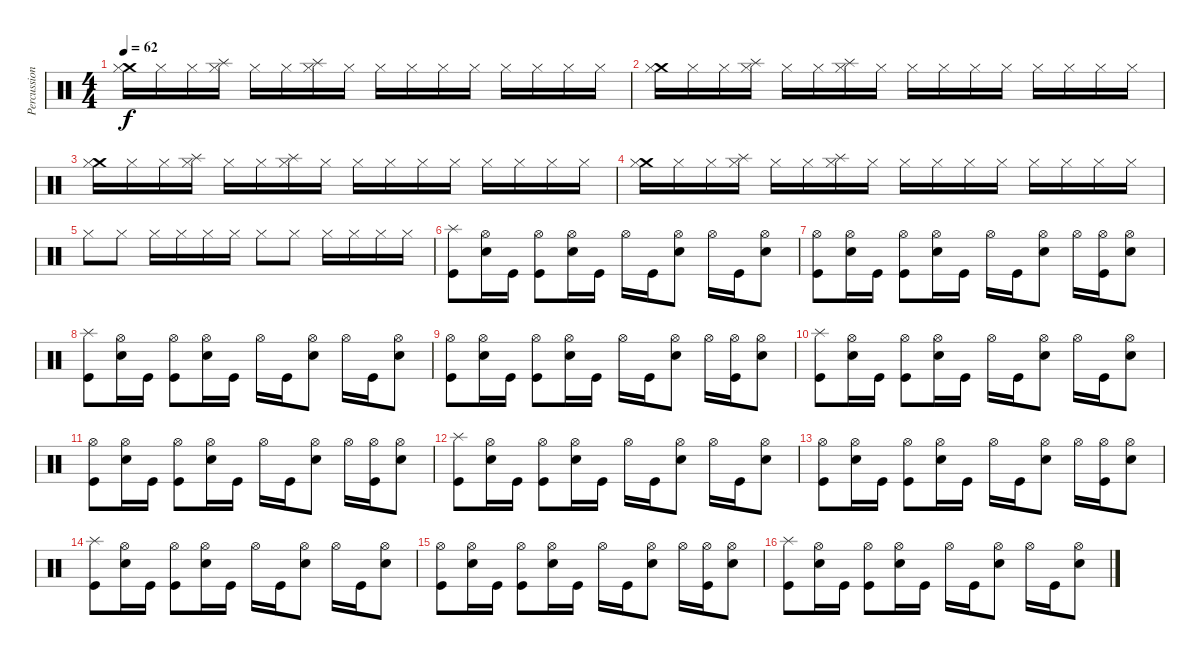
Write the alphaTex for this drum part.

\track ("Percussion" "Percussion") {instrument percussion}
\staff {score}
\articulation defaults
\ts (4 4)
\tempo 62
\clef neutral
\ks c
("Crash medium (hit)" "Hi-Hat (closed)").16{dy f} "Hi-Hat (closed)".16 "Hi-Hat (closed)".16 ("Splash (hit)" "Hi-Hat (closed)").16 "Hi-Hat (closed)".16 "Hi-Hat (closed)".16 ("Splash (hit)" "Hi-Hat (closed)").16 "Hi-Hat (closed)".16 "Hi-Hat (closed)".16 "Hi-Hat (closed)".16 "Hi-Hat (closed)".16 "Hi-Hat (closed)".16 "Hi-Hat (closed)".16 "Hi-Hat (closed)".16 "Hi-Hat (closed)".16 "Hi-Hat (closed)".16 |
("Crash medium (hit)" "Hi-Hat (closed)").16 "Hi-Hat (closed)".16 "Hi-Hat (closed)".16 ("Splash (hit)" "Hi-Hat (closed)").16 "Hi-Hat (closed)".16 "Hi-Hat (closed)".16 ("Splash (hit)" "Hi-Hat (closed)").16 "Hi-Hat (closed)".16 "Hi-Hat (closed)".16 "Hi-Hat (closed)".16 "Hi-Hat (closed)".16 "Hi-Hat (closed)".16 "Hi-Hat (closed)".16 "Hi-Hat (closed)".16 "Hi-Hat (closed)".16 "Hi-Hat (closed)".16 |
("Crash medium (hit)" "Hi-Hat (closed)").16 "Hi-Hat (closed)".16 "Hi-Hat (closed)".16 ("Splash (hit)" "Hi-Hat (closed)").16 "Hi-Hat (closed)".16 "Hi-Hat (closed)".16 ("Splash (hit)" "Hi-Hat (closed)").16 "Hi-Hat (closed)".16 "Hi-Hat (closed)".16 "Hi-Hat (closed)".16 "Hi-Hat (closed)".16 "Hi-Hat (closed)".16 "Hi-Hat (closed)".16 "Hi-Hat (closed)".16 "Hi-Hat (closed)".16 "Hi-Hat (closed)".16 |
("Crash medium (hit)" "Hi-Hat (closed)").16 "Hi-Hat (closed)".16 "Hi-Hat (closed)".16 ("Splash (hit)" "Hi-Hat (closed)").16 "Hi-Hat (closed)".16 "Hi-Hat (closed)".16 ("Splash (hit)" "Hi-Hat (closed)").16 "Hi-Hat (closed)".16 "Hi-Hat (closed)".16 "Hi-Hat (closed)".16 "Hi-Hat (closed)".16 "Hi-Hat (closed)".16 "Hi-Hat (closed)".16 "Hi-Hat (closed)".16 "Hi-Hat (closed)".16 "Hi-Hat (closed)".16 |
"Hi-Hat (closed)".8 "Hi-Hat (closed)".8 "Hi-Hat (closed)".16 "Hi-Hat (closed)".16 "Hi-Hat (closed)".16 "Hi-Hat (closed)".16 "Hi-Hat (closed)".8 "Hi-Hat (closed)".8 "Hi-Hat (closed)".16 "Hi-Hat (closed)".16 "Hi-Hat (closed)".16 "Hi-Hat (closed)".16 |
("Splash (hit)" "Kick (hit)").8 ("Hi-Hat (open)" "Electric Snare (hit)").16 "Kick (hit)".16 ("Hi-Hat (open)" "Kick (hit)").8 ("Hi-Hat (open)" "Electric Snare (hit)").16 "Kick (hit)".16 "Hi-Hat (open)".16 "Kick (hit)".16 ("Hi-Hat (open)" "Electric Snare (hit)").8 "Hi-Hat (open)".16 "Kick (hit)".16 ("Hi-Hat (open)" "Electric Snare (hit)").8 |
("Hi-Hat (open)" "Kick (hit)").8 ("Hi-Hat (open)" "Electric Snare (hit)").16 "Kick (hit)".16 ("Hi-Hat (open)" "Kick (hit)").8 ("Hi-Hat (open)" "Electric Snare (hit)").16 "Kick (hit)".16 "Hi-Hat (open)".16 "Kick (hit)".16 ("Hi-Hat (open)" "Electric Snare (hit)").8 "Hi-Hat (open)".16 ("Hi-Hat (open)" "Kick (hit)").16 ("Hi-Hat (open)" "Electric Snare (hit)").8 |
("Splash (hit)" "Kick (hit)").8 ("Hi-Hat (open)" "Electric Snare (hit)").16 "Kick (hit)".16 ("Hi-Hat (open)" "Kick (hit)").8 ("Hi-Hat (open)" "Electric Snare (hit)").16 "Kick (hit)".16 "Hi-Hat (open)".16 "Kick (hit)".16 ("Hi-Hat (open)" "Electric Snare (hit)").8 "Hi-Hat (open)".16 "Kick (hit)".16 ("Hi-Hat (open)" "Electric Snare (hit)").8 |
("Hi-Hat (open)" "Kick (hit)").8 ("Hi-Hat (open)" "Electric Snare (hit)").16 "Kick (hit)".16 ("Hi-Hat (open)" "Kick (hit)").8 ("Hi-Hat (open)" "Electric Snare (hit)").16 "Kick (hit)".16 "Hi-Hat (open)".16 "Kick (hit)".16 ("Hi-Hat (open)" "Electric Snare (hit)").8 "Hi-Hat (open)".16 ("Hi-Hat (open)" "Kick (hit)").16 ("Hi-Hat (open)" "Electric Snare (hit)").8 |
("Splash (hit)" "Kick (hit)").8 ("Hi-Hat (open)" "Electric Snare (hit)").16 "Kick (hit)".16 ("Hi-Hat (open)" "Kick (hit)").8 ("Hi-Hat (open)" "Electric Snare (hit)").16 "Kick (hit)".16 "Hi-Hat (open)".16 "Kick (hit)".16 ("Hi-Hat (open)" "Electric Snare (hit)").8 "Hi-Hat (open)".16 "Kick (hit)".16 ("Hi-Hat (open)" "Electric Snare (hit)").8 |
("Hi-Hat (open)" "Kick (hit)").8 ("Hi-Hat (open)" "Electric Snare (hit)").16 "Kick (hit)".16 ("Hi-Hat (open)" "Kick (hit)").8 ("Hi-Hat (open)" "Electric Snare (hit)").16 "Kick (hit)".16 "Hi-Hat (open)".16 "Kick (hit)".16 ("Hi-Hat (open)" "Electric Snare (hit)").8 "Hi-Hat (open)".16 ("Hi-Hat (open)" "Kick (hit)").16 ("Hi-Hat (open)" "Electric Snare (hit)").8 |
("Splash (hit)" "Kick (hit)").8 ("Hi-Hat (open)" "Electric Snare (hit)").16 "Kick (hit)".16 ("Hi-Hat (open)" "Kick (hit)").8 ("Hi-Hat (open)" "Electric Snare (hit)").16 "Kick (hit)".16 "Hi-Hat (open)".16 "Kick (hit)".16 ("Hi-Hat (open)" "Electric Snare (hit)").8 "Hi-Hat (open)".16 "Kick (hit)".16 ("Hi-Hat (open)" "Electric Snare (hit)").8 |
("Hi-Hat (open)" "Kick (hit)").8 ("Hi-Hat (open)" "Electric Snare (hit)").16 "Kick (hit)".16 ("Hi-Hat (open)" "Kick (hit)").8 ("Hi-Hat (open)" "Electric Snare (hit)").16 "Kick (hit)".16 "Hi-Hat (open)".16 "Kick (hit)".16 ("Hi-Hat (open)" "Electric Snare (hit)").8 "Hi-Hat (open)".16 ("Hi-Hat (open)" "Kick (hit)").16 ("Hi-Hat (open)" "Electric Snare (hit)").8 |
("Splash (hit)" "Kick (hit)").8 ("Hi-Hat (open)" "Electric Snare (hit)").16 "Kick (hit)".16 ("Hi-Hat (open)" "Kick (hit)").8 ("Hi-Hat (open)" "Electric Snare (hit)").16 "Kick (hit)".16 "Hi-Hat (open)".16 "Kick (hit)".16 ("Hi-Hat (open)" "Electric Snare (hit)").8 "Hi-Hat (open)".16 "Kick (hit)".16 ("Hi-Hat (open)" "Electric Snare (hit)").8 |
("Hi-Hat (open)" "Kick (hit)").8 ("Hi-Hat (open)" "Electric Snare (hit)").16 "Kick (hit)".16 ("Hi-Hat (open)" "Kick (hit)").8 ("Hi-Hat (open)" "Electric Snare (hit)").16 "Kick (hit)".16 "Hi-Hat (open)".16 "Kick (hit)".16 ("Hi-Hat (open)" "Electric Snare (hit)").8 "Hi-Hat (open)".16 ("Hi-Hat (open)" "Kick (hit)").16 ("Hi-Hat (open)" "Electric Snare (hit)").8 |
("Splash (hit)" "Kick (hit)").8 ("Hi-Hat (open)" "Electric Snare (hit)").16 "Kick (hit)".16 ("Hi-Hat (open)" "Kick (hit)").8 ("Hi-Hat (open)" "Electric Snare (hit)").16 "Kick (hit)".16 "Hi-Hat (open)".16 "Kick (hit)".16 ("Hi-Hat (open)" "Electric Snare (hit)").8 "Hi-Hat (open)".16 "Kick (hit)".16 ("Hi-Hat (open)" "Electric Snare (hit)").8
